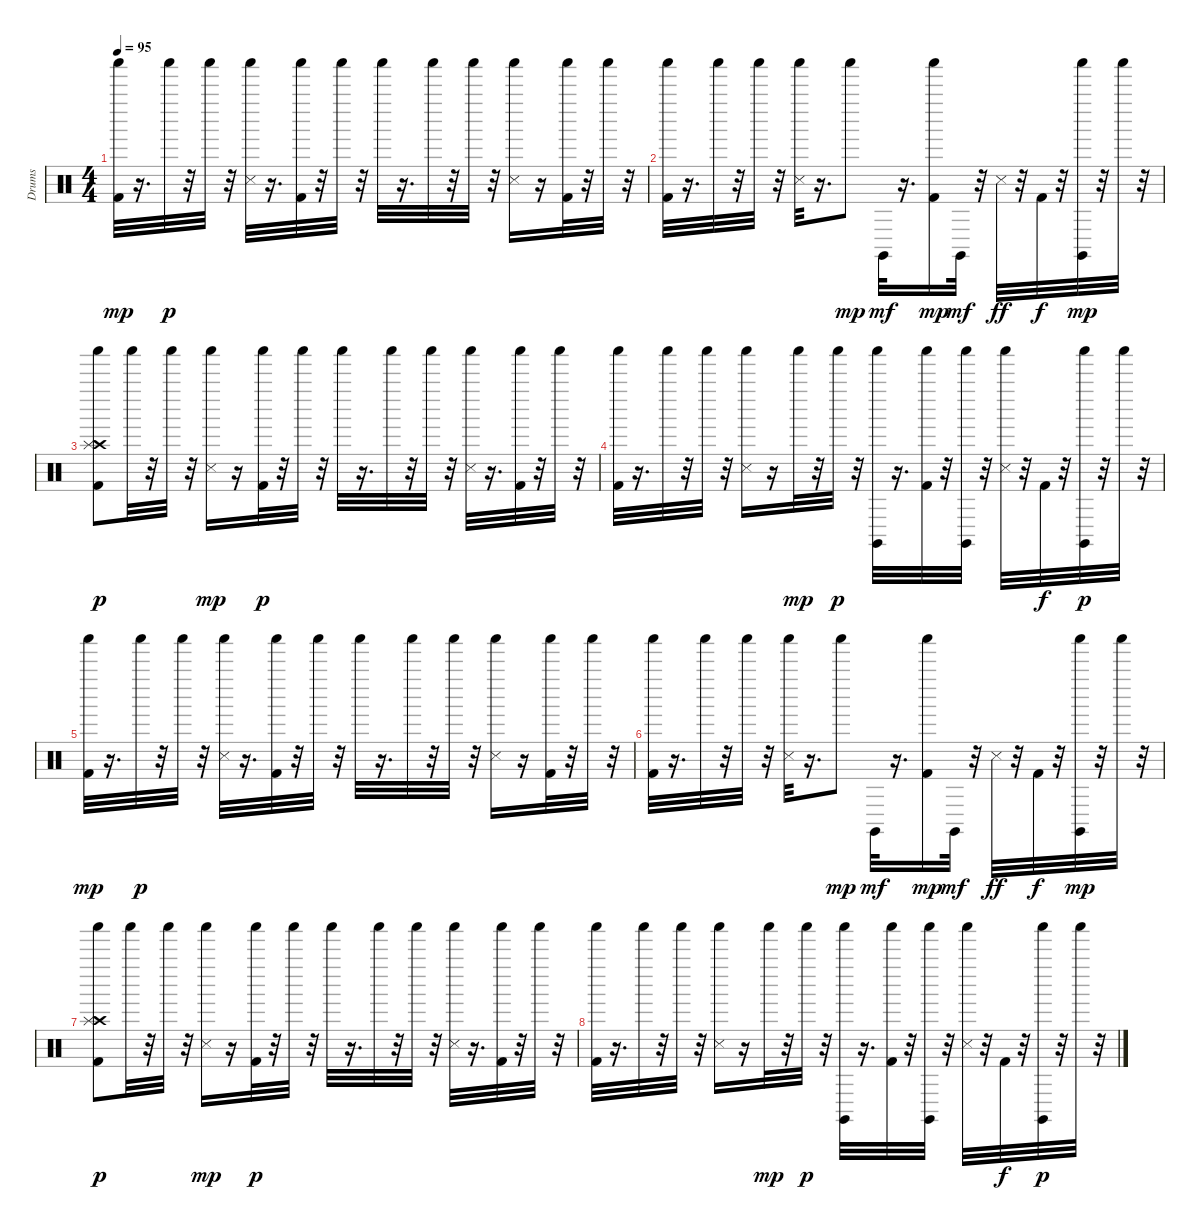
\track ("Drums" "Drums") {instrument percussion}
\staff {score}
\articulation defaults
\ts (4 4)
\tempo 95
\clef neutral
\ks c
("Kick (hit) 2" "Shaker (hit)").32{dy mp} r.16{d} "Shaker (hit)".32{dy p} r.32 "Shaker (hit)".32 r.32 ("Snare (side stick) 3" "Shaker (hit)").32 r.16{d} ("Kick (hit) 2" "Shaker (hit)").32 r.32 "Shaker (hit)".32 r.32 "Shaker (hit)".32 r.16{d} "Shaker (hit)".32 r.32 "Shaker (hit)".32 r.32 ("Snare (side stick) 3" "Shaker (hit)").16 r.16 ("Kick (hit) 2" "Shaker (hit)").32 r.32 "Shaker (hit)".32 r.32 |
("Kick (hit) 2" "Shaker (hit)").32 r.16{d} "Shaker (hit)".32 r.32 "Shaker (hit)".32 r.32 ("Snare (side stick) 3" "Shaker (hit)").32 r.16{d} "Shaker (hit)".8{dy mp} "Claves (hit)".32{dy mf} r.16{d} ("Kick (hit) 2" "Shaker (hit)").16{dy mp} "Claves (hit)".32{dy mf} r.32 "Snare (side stick) 3".32{dy ff} r.32 "Kick (hit) 2".32{dy f} r.32 ("Claves (hit)" "Shaker (hit)").32{dy mp} r.32 "Shaker (hit)".32 r.32 |
("Kick (hit) 2" "Crash high (hit)" "Splash (hit)" "Shaker (hit)").8{dy p} "Shaker (hit)".32 r.32 "Shaker (hit)".32 r.32 ("Snare (side stick) 3" "Shaker (hit)").16{dy mp} r.16 ("Kick (hit) 2" "Shaker (hit)").32{dy p} r.32 "Shaker (hit)".32 r.32 "Shaker (hit)".32 r.16{d} "Shaker (hit)".32 r.32 "Shaker (hit)".32 r.32 ("Snare (side stick) 3" "Shaker (hit)").32 r.16{d} ("Kick (hit) 2" "Shaker (hit)").32 r.32 "Shaker (hit)".32 r.32 |
("Kick (hit) 2" "Shaker (hit)").32 r.16{d} "Shaker (hit)".32 r.32 "Shaker (hit)".32 r.32 ("Snare (side stick) 3" "Shaker (hit)").16 r.16 "Shaker (hit)".32{dy mp} r.32 "Shaker (hit)".32{dy p} r.32 ("Claves (hit)" "Shaker (hit)").32 r.16{d} ("Kick (hit) 2" "Shaker (hit)").32 r.32 ("Claves (hit)" "Shaker (hit)").32 r.32 ("Snare (side stick) 3" "Shaker (hit)").32 r.32 "Kick (hit) 2".32{dy f} r.32 ("Claves (hit)" "Shaker (hit)").32{dy p} r.32 "Shaker (hit)".32 r.32 |
("Kick (hit) 2" "Shaker (hit)").32{dy mp} r.16{d} "Shaker (hit)".32{dy p} r.32 "Shaker (hit)".32 r.32 ("Snare (side stick) 3" "Shaker (hit)").32 r.16{d} ("Kick (hit) 2" "Shaker (hit)").32 r.32 "Shaker (hit)".32 r.32 "Shaker (hit)".32 r.16{d} "Shaker (hit)".32 r.32 "Shaker (hit)".32 r.32 ("Snare (side stick) 3" "Shaker (hit)").16 r.16 ("Kick (hit) 2" "Shaker (hit)").32 r.32 "Shaker (hit)".32 r.32 |
("Kick (hit) 2" "Shaker (hit)").32 r.16{d} "Shaker (hit)".32 r.32 "Shaker (hit)".32 r.32 ("Snare (side stick) 3" "Shaker (hit)").32 r.16{d} "Shaker (hit)".8{dy mp} "Claves (hit)".32{dy mf} r.16{d} ("Kick (hit) 2" "Shaker (hit)").16{dy mp} "Claves (hit)".32{dy mf} r.32 "Snare (side stick) 3".32{dy ff} r.32 "Kick (hit) 2".32{dy f} r.32 ("Claves (hit)" "Shaker (hit)").32{dy mp} r.32 "Shaker (hit)".32 r.32 |
("Kick (hit) 2" "Crash high (hit)" "Splash (hit)" "Shaker (hit)").8{dy p} "Shaker (hit)".32 r.32 "Shaker (hit)".32 r.32 ("Snare (side stick) 3" "Shaker (hit)").16{dy mp} r.16 ("Kick (hit) 2" "Shaker (hit)").32{dy p} r.32 "Shaker (hit)".32 r.32 "Shaker (hit)".32 r.16{d} "Shaker (hit)".32 r.32 "Shaker (hit)".32 r.32 ("Snare (side stick) 3" "Shaker (hit)").32 r.16{d} ("Kick (hit) 2" "Shaker (hit)").32 r.32 "Shaker (hit)".32 r.32 |
("Kick (hit) 2" "Shaker (hit)").32 r.16{d} "Shaker (hit)".32 r.32 "Shaker (hit)".32 r.32 ("Snare (side stick) 3" "Shaker (hit)").16 r.16 "Shaker (hit)".32{dy mp} r.32 "Shaker (hit)".32{dy p} r.32 ("Claves (hit)" "Shaker (hit)").32 r.16{d} ("Kick (hit) 2" "Shaker (hit)").32 r.32 ("Claves (hit)" "Shaker (hit)").32 r.32 ("Snare (side stick) 3" "Shaker (hit)").32 r.32 "Kick (hit) 2".32{dy f} r.32 ("Claves (hit)" "Shaker (hit)").32{dy p} r.32 "Shaker (hit)".32 r.32
